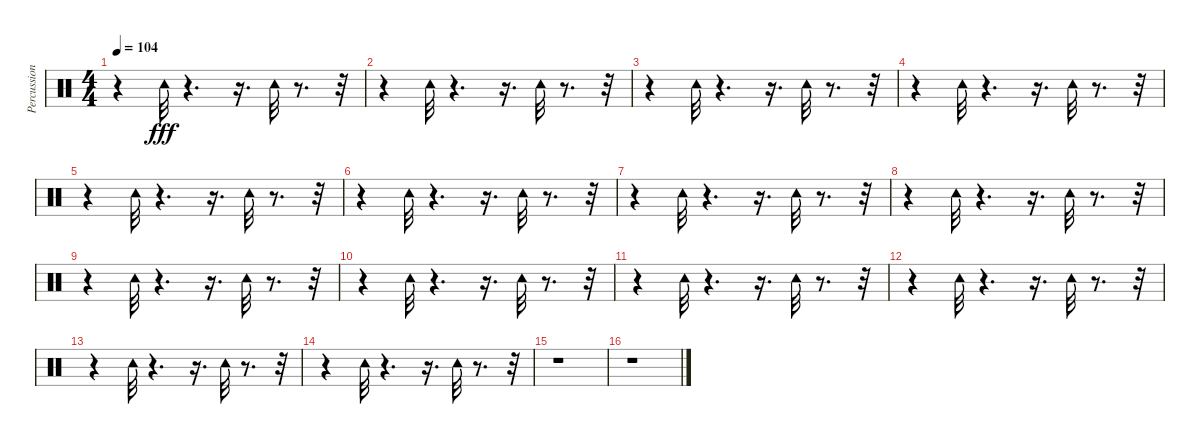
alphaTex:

\track ("Percussion" "Percussion") {instrument percussion}
\staff {score}
\articulation defaults
\ts (4 4)
\tempo 104
\clef neutral
\ks c
r.4{dy fff} "Tambourine (hit)".32 r.4{d} r.16{d} "Tambourine (hit)".32 r.8{d} r.32 |
r.4 "Tambourine (hit)".32 r.4{d} r.16{d} "Tambourine (hit)".32 r.8{d} r.32 |
r.4 "Tambourine (hit)".32 r.4{d} r.16{d} "Tambourine (hit)".32 r.8{d} r.32 |
r.4 "Tambourine (hit)".32 r.4{d} r.16{d} "Tambourine (hit)".32 r.8{d} r.32 |
r.4 "Tambourine (hit)".32 r.4{d} r.16{d} "Tambourine (hit)".32 r.8{d} r.32 |
r.4 "Tambourine (hit)".32 r.4{d} r.16{d} "Tambourine (hit)".32 r.8{d} r.32 |
r.4 "Tambourine (hit)".32 r.4{d} r.16{d} "Tambourine (hit)".32 r.8{d} r.32 |
r.4 "Tambourine (hit)".32 r.4{d} r.16{d} "Tambourine (hit)".32 r.8{d} r.32 |
r.4 "Tambourine (hit)".32 r.4{d} r.16{d} "Tambourine (hit)".32 r.8{d} r.32 |
r.4 "Tambourine (hit)".32 r.4{d} r.16{d} "Tambourine (hit)".32 r.8{d} r.32 |
r.4 "Tambourine (hit)".32 r.4{d} r.16{d} "Tambourine (hit)".32 r.8{d} r.32 |
r.4 "Tambourine (hit)".32 r.4{d} r.16{d} "Tambourine (hit)".32 r.8{d} r.32 |
r.4 "Tambourine (hit)".32 r.4{d} r.16{d} "Tambourine (hit)".32 r.8{d} r.32 |
r.4 "Tambourine (hit)".32 r.4{d} r.16{d} "Tambourine (hit)".32 r.8{d} r.32 |
r.1 |
r.1
